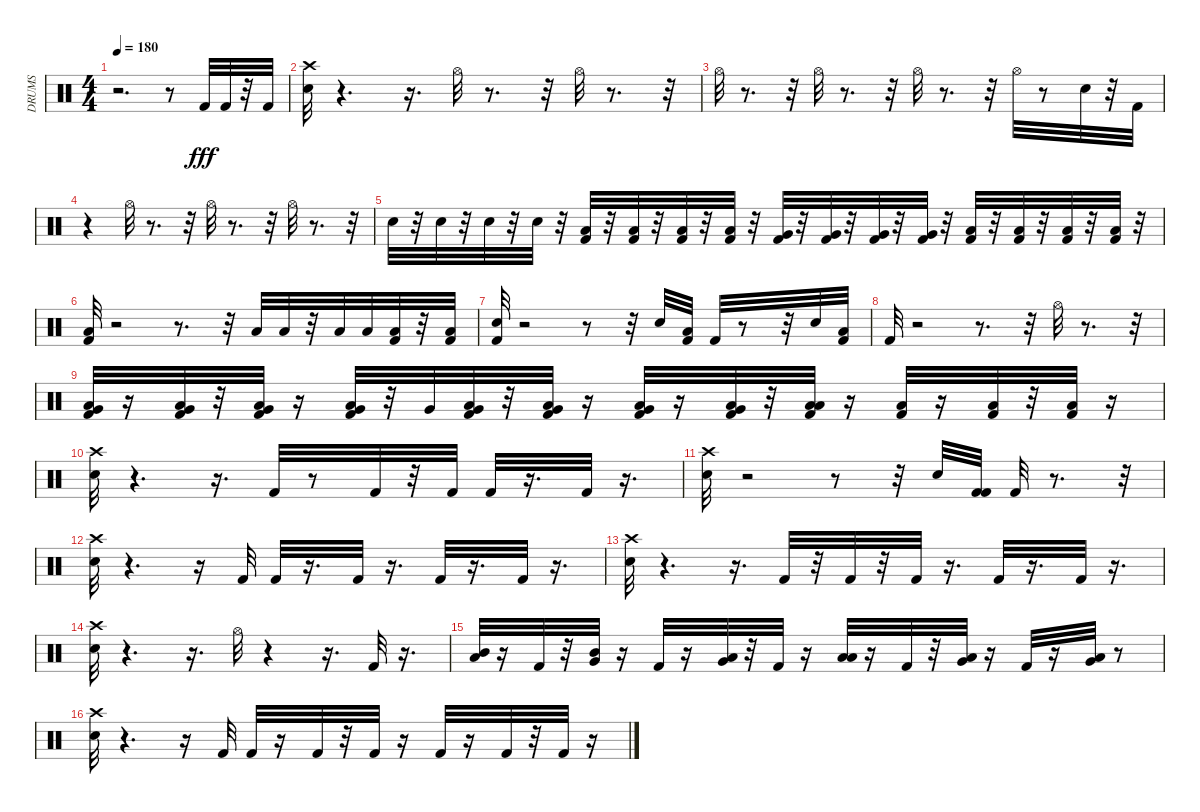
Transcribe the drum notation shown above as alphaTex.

\track ("DRUMS" "DRUMS") {instrument percussion}
\staff {score}
\articulation defaults
\ts (4 4)
\tempo 180
\clef neutral
\ks c
r.2{d dy fff} r.8 "Kick (hit) 2".32 "Kick (hit) 2".32 r.32 "Kick (hit) 2".32 |
("Crash high (hit)" "Electric Snare (hit)").32 r.4{d} r.16{d} "Hi-Hat (open)".32 r.8{d} r.32 "Hi-Hat (open)".32 r.8{d} r.32 |
"Hi-Hat (open)".32 r.8{d} r.32 "Hi-Hat (open)".32 r.8{d} r.32 "Hi-Hat (open)".32 r.8{d} r.32 "Hi-Hat (open)".32 r.8 "Snare (hit) 2".32 r.32 "Kick (hit) 2".32 |
r.4 "Hi-Hat (open)".32 r.8{d} r.32 "Hi-Hat (open)".32 r.8{d} r.32 "Hi-Hat (open)".32 r.8{d} r.32 |
"Electric Snare (hit)".32 r.32 "Electric Snare (hit)".32 r.32 "Electric Snare (hit)".32 r.32 "Electric Snare (hit)".32 r.32 ("Low Tom (hit)" "Kick (hit) 2").32 r.32 ("Low Tom (hit)" "Kick (hit) 2").32 r.32 ("Low Tom (hit)" "Kick (hit) 2").32 r.32 ("Low Tom (hit)" "Kick (hit) 2").32 r.32 ("Very Low Tom (hit)" "Kick (hit) 2").32 r.32 ("Very Low Tom (hit)" "Kick (hit) 2").32 r.32 ("Very Low Tom (hit)" "Kick (hit) 2").32 r.32 ("Very Low Tom (hit)" "Kick (hit) 2").32 r.32 ("Low Floor Tom (hit)" "Kick (hit) 2").32 r.32 ("Low Floor Tom (hit)" "Kick (hit) 2").32 r.32 ("Low Floor Tom (hit)" "Kick (hit) 2").32 r.32 ("Low Floor Tom (hit)" "Kick (hit) 2").32 r.32 |
("Low Floor Tom (hit)" "Kick (hit) 2").32 r.2 r.8{d} r.32 "Low Floor Tom (hit)".32 "Low Floor Tom (hit)".32 r.32 "Low Floor Tom (hit)".32 "Low Floor Tom (hit)".32 ("Low Floor Tom (hit)" "Kick (hit) 2").32 r.32 ("Low Floor Tom (hit)" "Kick (hit) 2").32 |
("Electric Snare (hit)" "Kick (hit) 2").32 r.2 r.8 r.32 "Electric Snare (hit)".32 ("Low Floor Tom (hit)" "Kick (hit) 2").32 "Kick (hit) 2".32 r.8 r.32 "Electric Snare (hit)".32 ("Low Floor Tom (hit)" "Kick (hit) 2").32 |
"Kick (hit) 2".32 r.2 r.8{d} r.32 "Hi-Hat (open)".32 r.8{d} r.32 |
("Low Tom (hit)" "Very Low Tom (hit)" "Kick (hit) 2").32 r.16 ("Low Tom (hit)" "Very Low Tom (hit)" "Kick (hit) 2").32 r.32 ("Low Tom (hit)" "Very Low Tom (hit)" "Kick (hit) 2").32 r.16 ("Low Tom (hit)" "Very Low Tom (hit)" "Kick (hit) 2").32 r.32 "Very Low Tom (hit)".32 ("Very Low Tom (hit)" "Low Floor Tom (hit)" "Kick (hit) 2").32 r.32 ("Very Low Tom (hit)" "Low Floor Tom (hit)" "Kick (hit) 2").32 r.16 ("Very Low Tom (hit)" "Low Floor Tom (hit)" "Kick (hit) 2").32 r.16 ("Very Low Tom (hit)" "Low Floor Tom (hit)" "Kick (hit) 2").32 r.32 ("Low Floor Tom (hit)" "Low Floor Tom (hit)" "Kick (hit) 2").32 r.16 ("Low Floor Tom (hit)" "Kick (hit) 2").32 r.16 ("Low Floor Tom (hit)" "Kick (hit) 2").32 r.32 ("Low Floor Tom (hit)" "Kick (hit) 2").32 r.16 |
("Crash high (hit)" "Electric Snare (hit)").32 r.4{d} r.16{d} "Kick (hit) 2".32 r.8 "Kick (hit) 2".32 r.32 "Kick (hit) 2".32 "Kick (hit) 2".32 r.16{d} "Kick (hit) 2".32 r.16{d} |
("Crash high (hit)" "Electric Snare (hit)").32 r.2 r.8 r.32 "Electric Snare (hit)".32 ("Kick (hit) 2" "Kick (hit) 2").32 "Kick (hit) 2".32 r.8{d} r.32 |
("Crash high (hit)" "Electric Snare (hit)").32 r.4{d} r.16 "Kick (hit) 2".32 "Kick (hit) 2".32 r.16{d} "Kick (hit) 2".32 r.16{d} "Kick (hit) 2".32 r.16{d} "Kick (hit) 2".32 r.16{d} |
("Crash high (hit)" "Electric Snare (hit)").32 r.4{d} r.16{d} "Kick (hit) 2".32 r.32 "Kick (hit) 2".32 r.32 "Kick (hit) 2".32 r.16{d} "Kick (hit) 2".32 r.16{d} "Kick (hit) 2".32 r.16{d} |
("Crash high (hit)" "Electric Snare (hit)").32 r.4{d} r.16{d} "Hi-Hat (open)".32 r.4 r.16{d} "Kick (hit) 2".32 r.16{d} |
("Mid Tom (hit)" "Low Tom (hit)").32 r.16 "Kick (hit) 2".32 r.32 ("Mid Tom (hit)" "Very Low Tom (hit)").32 r.16 "Kick (hit) 2".32 r.16 ("Low Tom (hit)" "Very Low Tom (hit)").32 r.32 "Kick (hit) 2".32 r.16 ("Low Tom (hit)" "Low Floor Tom (hit)").32 r.16 "Kick (hit) 2".32 r.32 ("Very Low Tom (hit)" "Low Floor Tom (hit)").32 r.16 "Kick (hit) 2".32 r.16 ("Very Low Tom (hit)" "Low Floor Tom (hit)").32 r.8 |
("Crash high (hit)" "Electric Snare (hit)").32 r.4{d} r.16 "Kick (hit) 2".32 "Kick (hit) 2".32 r.16 "Kick (hit) 2".32 r.32 "Kick (hit) 2".32 r.16 "Kick (hit) 2".32 r.16 "Kick (hit) 2".32 r.32 "Kick (hit) 2".32 r.16
